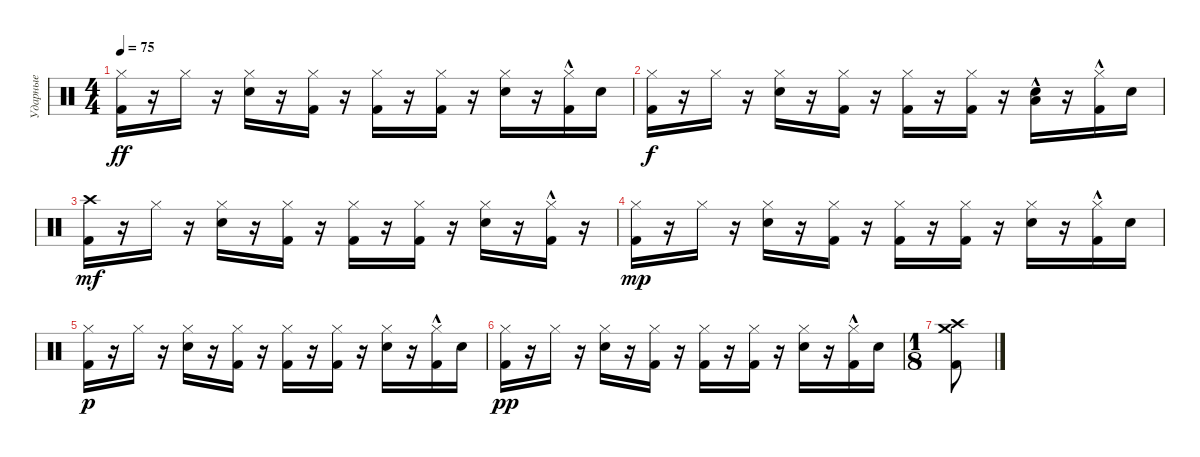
\track ("Ударные" "Ударные") {instrument percussion}
\staff {score}
\articulation defaults
\ts (4 4)
\tempo 75
\clef neutral
\ks c
("Hi-Hat (closed)" "Kick (hit) 2").16{dy ff} r.16 "Hi-Hat (closed)".16 r.16 ("Hi-Hat (closed)" "Electric Snare (hit)").16 r.16 ("Hi-Hat (closed)" "Kick (hit) 2").16 r.16 ("Hi-Hat (closed)" "Kick (hit) 2").16 r.16 ("Hi-Hat (closed)" "Kick (hit) 2").16 r.16 ("Hi-Hat (closed)" "Electric Snare (hit)").16 r.16 ("Hi-Hat (closed)"{hac} "Kick (hit) 2").16 "Electric Snare (hit)".16 |
("Hi-Hat (closed)" "Kick (hit) 2").16{dy f} r.16 "Hi-Hat (closed)".16 r.16 ("Hi-Hat (closed)" "Electric Snare (hit)").16 r.16 ("Hi-Hat (closed)" "Kick (hit) 2").16 r.16 ("Hi-Hat (closed)" "Kick (hit) 2").16 r.16 ("Hi-Hat (closed)" "Kick (hit) 2").16 r.16 ("Electric Snare (hit)"{hac} "Low Floor Tom (hit)"{hac}).16 r.16 ("Hi-Hat (closed)"{hac} "Kick (hit) 2").16 "Electric Snare (hit)".16 |
("Crash high (hit)" "Kick (hit) 2").16{dy mf} r.16 "Hi-Hat (closed)".16 r.16 ("Hi-Hat (closed)" "Electric Snare (hit)").16 r.16 ("Hi-Hat (closed)" "Kick (hit) 2").16 r.16 ("Hi-Hat (closed)" "Kick (hit) 2").16 r.16 ("Hi-Hat (closed)" "Kick (hit) 2").16 r.16 ("Hi-Hat (closed)" "Electric Snare (hit)").16 r.16 ("Hi-Hat (closed)"{hac} "Kick (hit) 2").16 r.16 |
("Hi-Hat (closed)" "Kick (hit) 2").16{dy mp} r.16 "Hi-Hat (closed)".16 r.16 ("Hi-Hat (closed)" "Electric Snare (hit)").16 r.16 ("Hi-Hat (closed)" "Kick (hit) 2").16 r.16 ("Hi-Hat (closed)" "Kick (hit) 2").16 r.16 ("Hi-Hat (closed)" "Kick (hit) 2").16 r.16 ("Hi-Hat (closed)" "Electric Snare (hit)").16 r.16 ("Hi-Hat (closed)"{hac} "Kick (hit) 2").16 "Electric Snare (hit)".16 |
("Hi-Hat (closed)" "Kick (hit) 2").16{dy p} r.16 "Hi-Hat (closed)".16 r.16 ("Hi-Hat (closed)" "Electric Snare (hit)").16 r.16 ("Hi-Hat (closed)" "Kick (hit) 2").16 r.16 ("Hi-Hat (closed)" "Kick (hit) 2").16 r.16 ("Hi-Hat (closed)" "Kick (hit) 2").16 r.16 ("Hi-Hat (closed)" "Electric Snare (hit)").16 r.16 ("Hi-Hat (closed)"{hac} "Kick (hit) 2").16 "Electric Snare (hit)".16 |
("Hi-Hat (closed)" "Kick (hit) 2").16{dy pp} r.16 "Hi-Hat (closed)".16 r.16 ("Hi-Hat (closed)" "Electric Snare (hit)").16 r.16 ("Hi-Hat (closed)" "Kick (hit) 2").16 r.16 ("Hi-Hat (closed)" "Kick (hit) 2").16 r.16 ("Hi-Hat (closed)" "Kick (hit) 2").16 r.16 ("Hi-Hat (closed)" "Electric Snare (hit)").16 r.16 ("Hi-Hat (closed)"{hac} "Kick (hit) 2").16 "Electric Snare (hit)".16 |
\ts (1 8)
("Crash high (hit)" "Crash medium (hit)" "Kick (hit) 2").8
